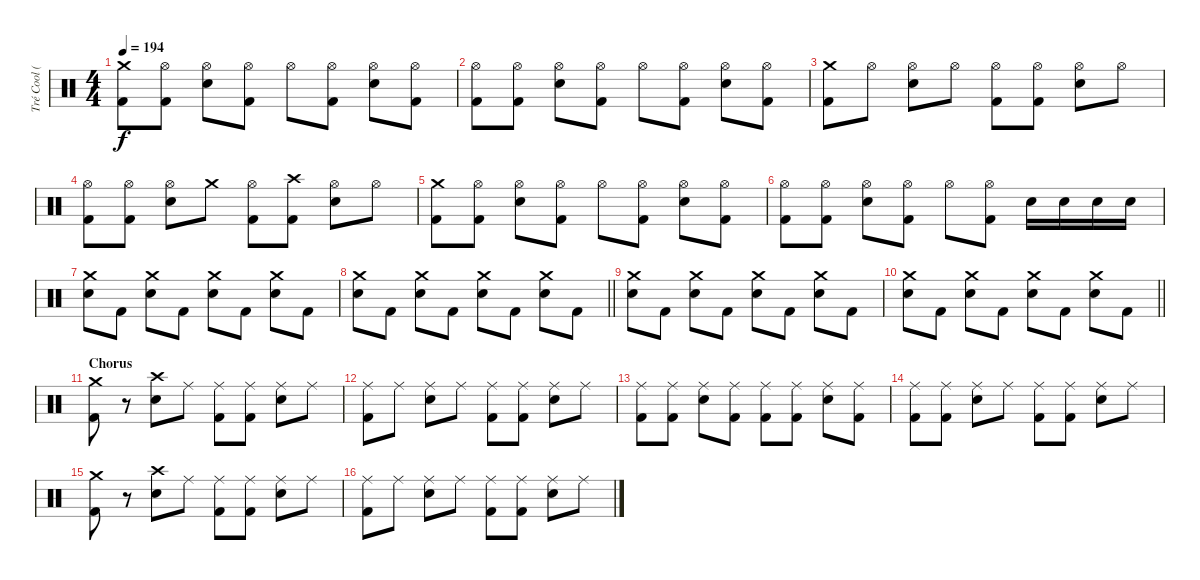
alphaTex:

\track ("Tré Cool (Drums)" "Tré Cool (") {instrument percussion}
\staff {score}
\articulation defaults
\ts (4 4)
\tempo 194
\clef neutral
\ks c
("Kick (hit) 2" "Crash medium (hit)").8{dy f} ("Kick (hit) 2" "Hi-Hat (open)").8 ("Snare (hit) 2" "Hi-Hat (open)").8 ("Kick (hit) 2" "Hi-Hat (open)").8 "Hi-Hat (open)".8 ("Kick (hit) 2" "Hi-Hat (open)").8 ("Snare (hit) 2" "Hi-Hat (open)").8 ("Kick (hit) 2" "Hi-Hat (open)").8 |
("Kick (hit) 2" "Hi-Hat (open)").8 ("Kick (hit) 2" "Hi-Hat (open)").8 ("Snare (hit) 2" "Hi-Hat (open)").8 ("Kick (hit) 2" "Hi-Hat (open)").8 "Hi-Hat (open)".8 ("Kick (hit) 2" "Hi-Hat (open)").8 ("Snare (hit) 2" "Hi-Hat (open)").8 ("Kick (hit) 2" "Hi-Hat (open)").8 |
("Kick (hit) 2" "Crash medium (hit)").8 "Hi-Hat (open)".8 ("Snare (hit) 2" "Hi-Hat (open)").8 "Hi-Hat (open)".8 ("Kick (hit) 2" "Hi-Hat (open)").8 ("Kick (hit) 2" "Hi-Hat (open)").8 ("Snare (hit) 2" "Hi-Hat (open)").8 "Hi-Hat (open)".8 |
("Kick (hit) 2" "Hi-Hat (open)").8 ("Kick (hit) 2" "Hi-Hat (open)").8 ("Snare (hit) 2" "Hi-Hat (open)").8 "Crash medium (hit)".8 ("Kick (hit) 2" "Hi-Hat (open)").8 ("Kick (hit) 2" "Crash high (hit)").8 ("Snare (hit) 2" "Hi-Hat (open)").8 "Hi-Hat (open)".8 |
("Kick (hit) 2" "Crash medium (hit)").8 ("Kick (hit) 2" "Hi-Hat (open)").8 ("Snare (hit) 2" "Hi-Hat (open)").8 ("Kick (hit) 2" "Hi-Hat (open)").8 "Hi-Hat (open)".8 ("Kick (hit) 2" "Hi-Hat (open)").8 ("Snare (hit) 2" "Hi-Hat (open)").8 ("Kick (hit) 2" "Hi-Hat (open)").8 |
("Kick (hit) 2" "Hi-Hat (open)").8 ("Kick (hit) 2" "Hi-Hat (open)").8 ("Snare (hit) 2" "Hi-Hat (open)").8 ("Kick (hit) 2" "Hi-Hat (open)").8 "Hi-Hat (open)".8 ("Kick (hit) 2" "Hi-Hat (open)").8 "Snare (hit) 2".16 "Snare (hit) 2".16 "Snare (hit) 2".16 "Snare (hit) 2".16 |
("Snare (hit) 2" "Crash medium (hit)").8 "Kick (hit) 2".8 ("Snare (hit) 2" "Crash medium (hit)").8 "Kick (hit) 2".8 ("Snare (hit) 2" "Crash medium (hit)").8 "Kick (hit) 2".8 ("Snare (hit) 2" "Crash medium (hit)").8 "Kick (hit) 2".8 |
\barLineRight lightlight
("Snare (hit) 2" "Crash medium (hit)").8 "Kick (hit) 2".8 ("Snare (hit) 2" "Crash medium (hit)").8 "Kick (hit) 2".8 ("Snare (hit) 2" "Crash medium (hit)").8 "Kick (hit) 2".8 ("Snare (hit) 2" "Crash medium (hit)").8 "Kick (hit) 2".8 |
("Snare (hit) 2" "Crash medium (hit)").8 "Kick (hit) 2".8 ("Snare (hit) 2" "Crash medium (hit)").8 "Kick (hit) 2".8 ("Snare (hit) 2" "Crash medium (hit)").8 "Kick (hit) 2".8 ("Snare (hit) 2" "Crash medium (hit)").8 "Kick (hit) 2".8 |
\barLineRight lightlight
("Snare (hit) 2" "Crash medium (hit)").8 "Kick (hit) 2".8 ("Snare (hit) 2" "Crash medium (hit)").8 "Kick (hit) 2".8 ("Snare (hit) 2" "Crash medium (hit)").8 "Kick (hit) 2".8 ("Snare (hit) 2" "Crash medium (hit)").8 "Kick (hit) 2".8 |
\section ("" "Chorus")
("Kick (hit) 2" "Crash medium (hit)").8 r.8 ("Snare (hit) 2" "Crash high (hit)").8 "Ride (middle)".8 ("Kick (hit) 2" "Ride (middle)").8 ("Kick (hit) 2" "Ride (middle)").8 ("Snare (hit) 2" "Ride (middle)").8 "Ride (middle)".8 |
("Kick (hit) 2" "Ride (middle)").8 "Ride (middle)".8 ("Snare (hit) 2" "Ride (middle)").8 "Ride (middle)".8 ("Kick (hit) 2" "Ride (middle)").8 ("Kick (hit) 2" "Ride (middle)").8 ("Snare (hit) 2" "Ride (middle)").8 "Ride (middle)".8 |
("Kick (hit) 2" "Ride (middle)").8 ("Kick (hit) 2" "Ride (middle)").8 ("Snare (hit) 2" "Ride (middle)").8 ("Kick (hit) 2" "Ride (middle)").8 ("Kick (hit) 2" "Ride (middle)").8 ("Kick (hit) 2" "Ride (middle)").8 ("Snare (hit) 2" "Ride (middle)").8 ("Kick (hit) 2" "Ride (middle)").8 |
("Kick (hit) 2" "Ride (middle)").8 ("Kick (hit) 2" "Ride (middle)").8 ("Snare (hit) 2" "Ride (middle)").8 "Ride (middle)".8 ("Kick (hit) 2" "Ride (middle)").8 ("Kick (hit) 2" "Ride (middle)").8 ("Snare (hit) 2" "Ride (middle)").8 "Ride (middle)".8 |
("Kick (hit) 2" "Crash medium (hit)").8 r.8 ("Snare (hit) 2" "Crash high (hit)").8 "Ride (middle)".8 ("Kick (hit) 2" "Ride (middle)").8 ("Kick (hit) 2" "Ride (middle)").8 ("Snare (hit) 2" "Ride (middle)").8 "Ride (middle)".8 |
("Kick (hit) 2" "Ride (middle)").8 "Ride (middle)".8 ("Snare (hit) 2" "Ride (middle)").8 "Ride (middle)".8 ("Kick (hit) 2" "Ride (middle)").8 ("Kick (hit) 2" "Ride (middle)").8 ("Snare (hit) 2" "Ride (middle)").8 "Ride (middle)".8
